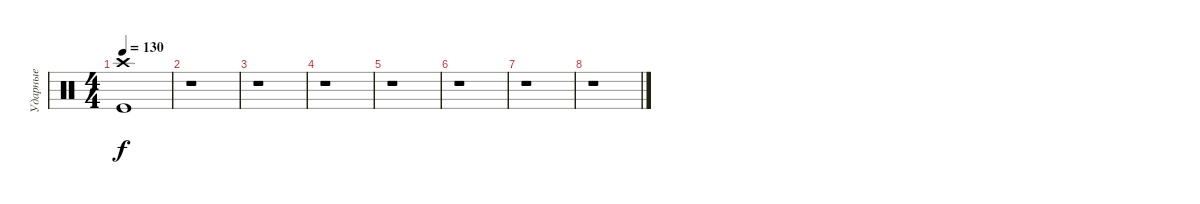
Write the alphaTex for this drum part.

\track ("Ударные" "Ударные") {instrument percussion}
\staff {score}
\articulation defaults
\ts (4 4)
\tempo 130
\clef neutral
\ks c
("Crash high (hit)" "Kick (hit)").1{dy f} |
r.1 |
r.1 |
r.1 |
r.1 |
r.1 |
r.1 |
r.1
